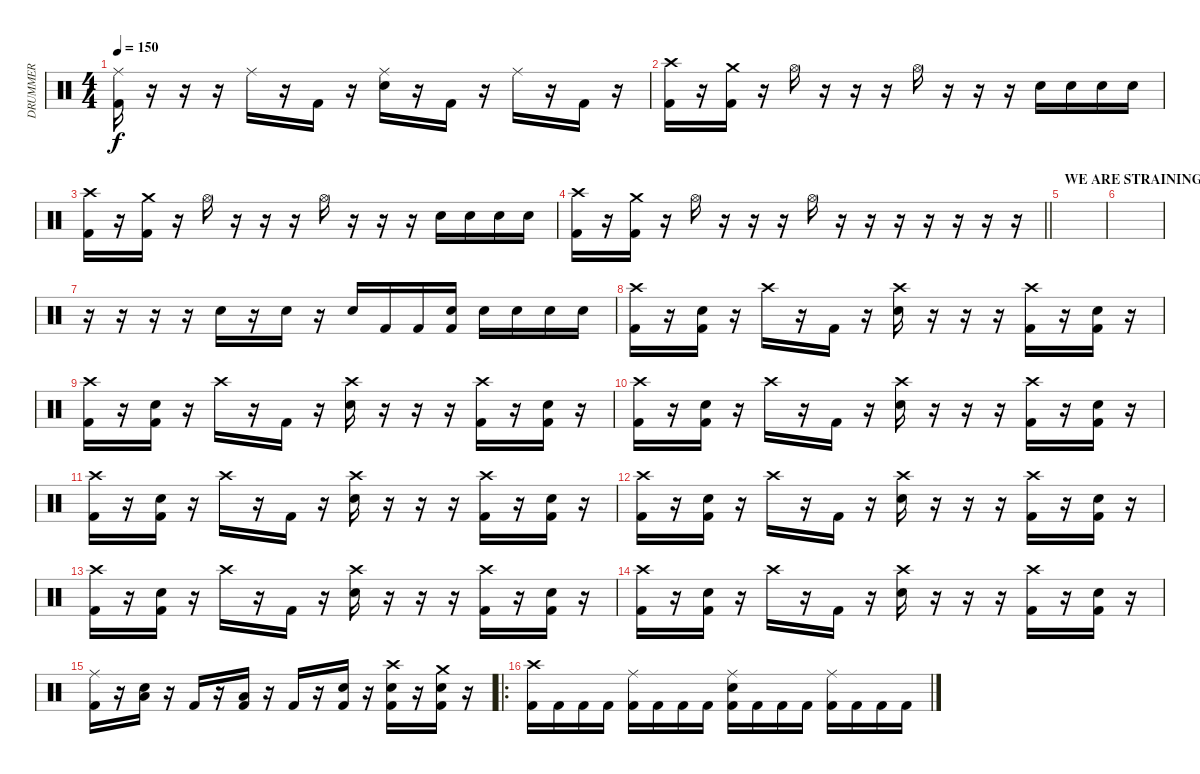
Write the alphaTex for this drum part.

\track ("DRUMMER" "DRUMMER") {instrument percussion}
\staff {score}
\articulation defaults
\ts (4 4)
\tempo 150
\clef neutral
\ks c
("Ride (middle)" "Kick (hit) 2").16{dy f} r.16 r.16 r.16 "Ride (middle)".16 r.16 "Kick (hit) 2".16 r.16 ("Ride (middle)" "Electric Snare (hit)").16 r.16 "Kick (hit) 2".16 r.16 "Ride (middle)".16 r.16 "Kick (hit) 2".16 r.16 |
("Crash high (hit)" "Kick (hit) 2").16 r.16 ("Crash medium (hit)" "Kick (hit) 2").16 r.16 "Hi-Hat (open)".16 r.16 r.16 r.16 "Hi-Hat (open)".16 r.16 r.16 r.16 "Electric Snare (hit)".16 "Electric Snare (hit)".16 "Electric Snare (hit)".16 "Electric Snare (hit)".16 |
("Crash high (hit)" "Kick (hit) 2").16 r.16 ("Crash medium (hit)" "Kick (hit) 2").16 r.16 "Hi-Hat (open)".16 r.16 r.16 r.16 "Hi-Hat (open)".16 r.16 r.16 r.16 "Electric Snare (hit)".16 "Electric Snare (hit)".16 "Electric Snare (hit)".16 "Electric Snare (hit)".16 |
\barLineRight lightlight
("Crash high (hit)" "Kick (hit) 2").16 r.16 ("Crash medium (hit)" "Kick (hit) 2").16 r.16 "Hi-Hat (open)".16 r.16 r.16 r.16 "Hi-Hat (open)".16 r.16 r.16 r.16 r.16 r.16 r.16 r.16 |
\section ("" "WE ARE STRAINING AT THE LEASSSHHH!!!")
|
|
r.16 r.16 r.16 r.16 "Electric Snare (hit)".16 r.16 "Electric Snare (hit)".16 r.16 "Electric Snare (hit)".16 "Kick (hit) 2".16 "Kick (hit) 2".16 ("Kick (hit) 2" "Electric Snare (hit)").16 "Electric Snare (hit)".16 "Electric Snare (hit)".16 "Electric Snare (hit)".16 "Electric Snare (hit)".16 |
("Crash high (hit)" "Kick (hit) 2").16 r.16 ("Electric Snare (hit)" "Kick (hit) 2").16 r.16 "Crash high (hit)".16 r.16 "Kick (hit) 2".16 r.16 ("Crash high (hit)" "Electric Snare (hit)").16 r.16 r.16 r.16 ("Crash high (hit)" "Kick (hit) 2").16 r.16 ("Electric Snare (hit)" "Kick (hit) 2").16 r.16 |
("Crash high (hit)" "Kick (hit) 2").16 r.16 ("Electric Snare (hit)" "Kick (hit) 2").16 r.16 "Crash high (hit)".16 r.16 "Kick (hit) 2".16 r.16 ("Crash high (hit)" "Electric Snare (hit)").16 r.16 r.16 r.16 ("Crash high (hit)" "Kick (hit) 2").16 r.16 ("Electric Snare (hit)" "Kick (hit) 2").16 r.16 |
("Crash high (hit)" "Kick (hit) 2").16 r.16 ("Electric Snare (hit)" "Kick (hit) 2").16 r.16 "Crash high (hit)".16 r.16 "Kick (hit) 2".16 r.16 ("Crash high (hit)" "Electric Snare (hit)").16 r.16 r.16 r.16 ("Crash high (hit)" "Kick (hit) 2").16 r.16 ("Electric Snare (hit)" "Kick (hit) 2").16 r.16 |
("Crash high (hit)" "Kick (hit) 2").16 r.16 ("Electric Snare (hit)" "Kick (hit) 2").16 r.16 "Crash high (hit)".16 r.16 "Kick (hit) 2".16 r.16 ("Crash high (hit)" "Electric Snare (hit)").16 r.16 r.16 r.16 ("Crash high (hit)" "Kick (hit) 2").16 r.16 ("Electric Snare (hit)" "Kick (hit) 2").16 r.16 |
("Crash high (hit)" "Kick (hit) 2").16 r.16 ("Electric Snare (hit)" "Kick (hit) 2").16 r.16 "Crash high (hit)".16 r.16 "Kick (hit) 2".16 r.16 ("Crash high (hit)" "Electric Snare (hit)").16 r.16 r.16 r.16 ("Crash high (hit)" "Kick (hit) 2").16 r.16 ("Electric Snare (hit)" "Kick (hit) 2").16 r.16 |
("Crash high (hit)" "Kick (hit) 2").16 r.16 ("Electric Snare (hit)" "Kick (hit) 2").16 r.16 "Crash high (hit)".16 r.16 "Kick (hit) 2".16 r.16 ("Crash high (hit)" "Electric Snare (hit)").16 r.16 r.16 r.16 ("Crash high (hit)" "Kick (hit) 2").16 r.16 ("Electric Snare (hit)" "Kick (hit) 2").16 r.16 |
("Crash high (hit)" "Kick (hit) 2").16 r.16 ("Electric Snare (hit)" "Kick (hit) 2").16 r.16 "Crash high (hit)".16 r.16 "Kick (hit) 2".16 r.16 ("Crash high (hit)" "Electric Snare (hit)").16 r.16 r.16 r.16 ("Crash high (hit)" "Kick (hit) 2").16 r.16 ("Electric Snare (hit)" "Kick (hit) 2").16 r.16 |
("Ride (middle)" "Kick (hit) 2").16 r.16 ("Low Tom (hit)" "Electric Snare (hit)").16 r.16 "Kick (hit) 2".16 r.16 ("Low Tom (hit)" "Kick (hit) 2").16 r.16 "Kick (hit) 2".16 r.16 ("Electric Snare (hit)" "Kick (hit) 2").16 r.16 ("Crash high (hit)" "Electric Snare (hit)" "Kick (hit) 2").16 r.16 ("Crash medium (hit)" "Electric Snare (hit)" "Kick (hit) 2").16 r.16 |
\ro
("Crash high (hit)" "Kick (hit) 2").16 "Kick (hit) 2".16 "Kick (hit) 2".16 "Kick (hit) 2".16 ("Ride (middle)" "Kick (hit) 2").16 "Kick (hit) 2".16 "Kick (hit) 2".16 "Kick (hit) 2".16 ("Ride (middle)" "Electric Snare (hit)" "Kick (hit) 2").16 "Kick (hit) 2".16 "Kick (hit) 2".16 "Kick (hit) 2".16 ("Ride (middle)" "Kick (hit) 2").16 "Kick (hit) 2".16 "Kick (hit) 2".16 "Kick (hit) 2".16
